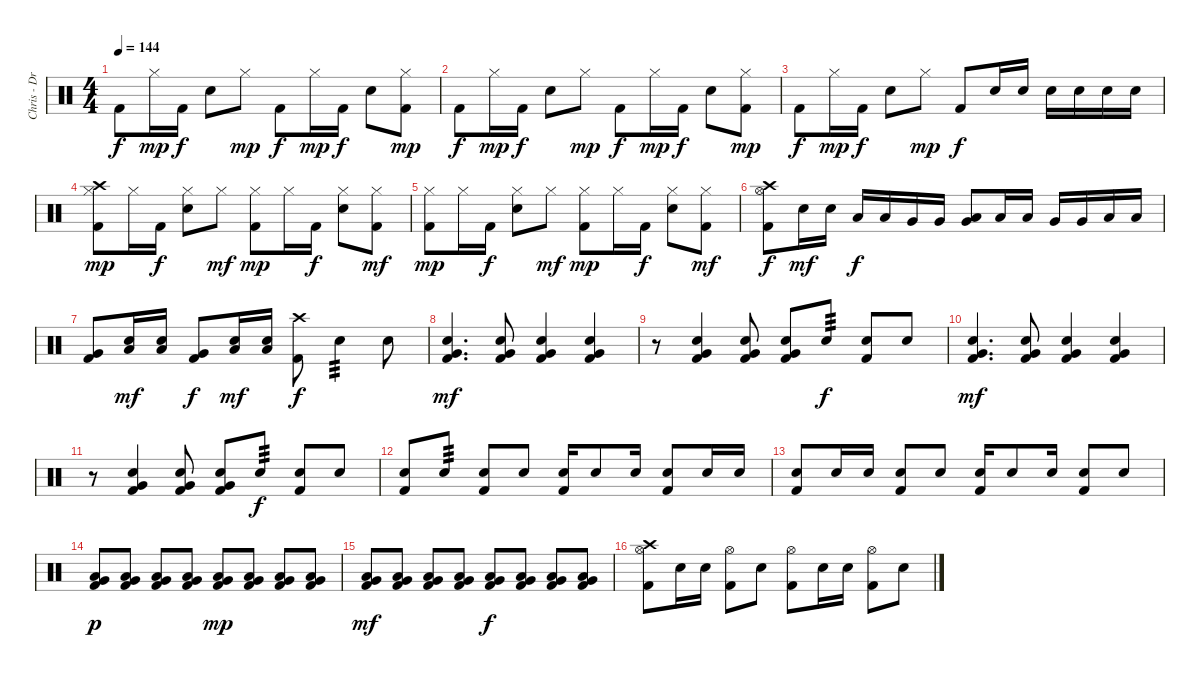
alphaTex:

\track ("Chris - Drums" "Chris - Dr") {instrument percussion}
\staff {score}
\articulation defaults
\ts (4 4)
\tempo 144
\clef neutral
\ks c "Kick (hit) 2".8{dy f} "Hi-Hat (closed)".16{dy mp} "Kick (hit) 2".16{dy f} "Electric Snare (hit)".8 "Hi-Hat (closed)".8{dy mp} "Kick (hit) 2".8{dy f} "Hi-Hat (closed)".16{dy mp} "Kick (hit) 2".16{dy f} "Electric Snare (hit)".8
("Hi-Hat (closed)" "Kick (hit) 2").8{dy mp} |
"Kick (hit) 2".8{dy f} "Hi-Hat (closed)".16{dy mp} "Kick (hit) 2".16{dy f} "Electric Snare (hit)".8 "Hi-Hat (closed)".8{dy mp} "Kick (hit) 2".8{dy f} "Hi-Hat (closed)".16{dy mp} "Kick (hit) 2".16{dy f} "Electric Snare (hit)".8 ("Hi-Hat (closed)" "Kick (hit) 2").8{dy mp} |
"Kick (hit) 2".8{dy f} "Hi-Hat (closed)".16{dy mp} "Kick (hit) 2".16{dy f} "Electric Snare (hit)".8 "Hi-Hat (closed)".8{dy mp} "Kick (hit) 2".8{dy f} "Electric Snare (hit)".16 "Electric Snare (hit)".16 "Electric Snare (hit)".16 "Electric Snare (hit)".16 "Electric Snare (hit)".16 "Electric Snare (hit)".16 |
("Crash high (hit)" "Hi-Hat (closed)" "Kick (hit) 2").8{dy mp} "Hi-Hat (closed)".16 "Kick (hit) 2".16{dy f} ("Hi-Hat (closed)" "Electric Snare (hit)").8 "Hi-Hat (closed)".8{dy mf} ("Hi-Hat (closed)" "Kick (hit) 2").8{dy mp} "Hi-Hat (closed)".16 "Kick (hit) 2".16{dy f} ("Hi-Hat (closed)" "Electric Snare (hit)").8 ("Hi-Hat (closed)" "Kick (hit) 2").8{dy mf} |
("Hi-Hat (closed)" "Kick (hit) 2").8{dy mp} "Hi-Hat (closed)".16 "Kick (hit) 2".16{dy f} ("Hi-Hat (closed)" "Electric Snare (hit)").8 "Hi-Hat (closed)".8{dy mf} ("Hi-Hat (closed)" "Kick (hit) 2").8{dy mp} "Hi-Hat (closed)".16 "Kick (hit) 2".16{dy f} ("Hi-Hat (closed)" "Electric Snare (hit)").8 ("Hi-Hat (closed)" "Kick (hit) 2").8{dy mf} |
("Crash high (hit)" "Hi-Hat (open)" "Kick (hit) 2").8{dy f} "Electric Snare (hit)".16{dy mf} "Electric Snare (hit)".16 "Low Tom (hit)".16{dy f} "Low Tom (hit)".16 "Very Low Tom (hit)".16 "Very Low Tom (hit)".16 ("Low Floor Tom (hit)" "Very Low Tom (hit)").8 "Low Tom (hit)".16 "Low Tom (hit)".16 "Very Low Tom (hit)".16 "Very Low Tom (hit)".16 "Low Floor Tom (hit)".16 "Low Floor Tom (hit)".16 |
("Very Low Tom (hit)" "Kick (hit) 2").8 ("Low Tom (hit)" "Electric Snare (hit)").16{dy mf} ("Low Tom (hit)" "Electric Snare (hit)").16 ("Very Low Tom (hit)" "Kick (hit) 2").8{dy f} ("Low Tom (hit)" "Electric Snare (hit)").16{dy mf} ("Low Tom (hit)" "Electric Snare (hit)").16 ("Crash high (hit)" "Kick (hit) 2").8{dy f} "Electric Snare (hit)".4{tp 3} "Electric Snare (hit)".8 |
("Very Low Tom (hit)" "Electric Snare (hit)" "Kick (hit) 2").4{d dy mf} ("Very Low Tom (hit)" "Electric Snare (hit)" "Kick (hit) 2").8 ("Very Low Tom (hit)" "Electric Snare (hit)" "Kick (hit) 2").4 ("Very Low Tom (hit)" "Electric Snare (hit)" "Kick (hit) 2").4 |
r.8 ("Very Low Tom (hit)" "Electric Snare (hit)" "Kick (hit) 2").4 ("Very Low Tom (hit)" "Electric Snare (hit)" "Kick (hit) 2").8 ("Very Low Tom (hit)" "Electric Snare (hit)" "Kick (hit) 2").8 "Electric Snare (hit)".8{tp 3 dy f} ("Electric Snare (hit)" "Kick (hit) 2").8 "Electric Snare (hit)".8 |
("Very Low Tom (hit)" "Electric Snare (hit)" "Kick (hit) 2").4{d dy mf} ("Very Low Tom (hit)" "Electric Snare (hit)" "Kick (hit) 2").8 ("Very Low Tom (hit)" "Electric Snare (hit)" "Kick (hit) 2").4 ("Very Low Tom (hit)" "Electric Snare (hit)" "Kick (hit) 2").4 |
r.8 ("Very Low Tom (hit)" "Electric Snare (hit)" "Kick (hit) 2").4 ("Very Low Tom (hit)" "Electric Snare (hit)" "Kick (hit) 2").8 ("Very Low Tom (hit)" "Electric Snare (hit)" "Kick (hit) 2").8 "Electric Snare (hit)".8{tp 3 dy f} ("Electric Snare (hit)" "Kick (hit) 2").8 "Electric Snare (hit)".8 |
("Electric Snare (hit)" "Kick (hit) 2").8 "Electric Snare (hit)".8{tp 3} ("Electric Snare (hit)" "Kick (hit) 2").8 "Electric Snare (hit)".8 ("Electric Snare (hit)" "Kick (hit) 2").16 "Electric Snare (hit)".8 "Electric Snare (hit)".16 ("Electric Snare (hit)" "Kick (hit) 2").8 "Electric Snare (hit)".16 "Electric Snare (hit)".16 |
("Electric Snare (hit)" "Kick (hit) 2").8 "Electric Snare (hit)".16 "Electric Snare (hit)".16 ("Electric Snare (hit)" "Kick (hit) 2").8 "Electric Snare (hit)".8 ("Electric Snare (hit)" "Kick (hit) 2").16 "Electric Snare (hit)".8 "Electric Snare (hit)".16 ("Electric Snare (hit)" "Kick (hit) 2").8 "Electric Snare (hit)".8 |
("Low Tom (hit)" "Very Low Tom (hit)" "Kick (hit) 2").8{dy p} ("Low Tom (hit)" "Very Low Tom (hit)" "Kick (hit) 2").8 ("Low Tom (hit)" "Very Low Tom (hit)" "Kick (hit) 2").8 ("Low Tom (hit)" "Very Low Tom (hit)" "Kick (hit) 2").8 ("Low Tom (hit)" "Very Low Tom (hit)" "Kick (hit) 2").8{dy mp} ("Low Tom (hit)" "Very Low Tom (hit)" "Kick (hit) 2").8 ("Low Tom (hit)" "Very Low Tom (hit)" "Kick (hit) 2").8 ("Low Tom (hit)" "Very Low Tom (hit)" "Kick (hit) 2").8 |
("Low Tom (hit)" "Very Low Tom (hit)" "Kick (hit) 2").8{dy mf} ("Low Tom (hit)" "Very Low Tom (hit)" "Kick (hit) 2").8 ("Low Tom (hit)" "Very Low Tom (hit)" "Kick (hit) 2").8 ("Low Tom (hit)" "Very Low Tom (hit)" "Kick (hit) 2").8 ("Low Tom (hit)" "Very Low Tom (hit)" "Kick (hit) 2").8{dy f} ("Low Tom (hit)" "Very Low Tom (hit)" "Kick (hit) 2").8 ("Low Tom (hit)" "Very Low Tom (hit)" "Kick (hit) 2").8 ("Low Tom (hit)" "Very Low Tom (hit)" "Kick (hit) 2").8 |
("Crash high (hit)" "Hi-Hat (open)" "Kick (hit) 2").8 "Electric Snare (hit)".16 "Electric Snare (hit)".16 ("Hi-Hat (open)" "Kick (hit) 2").8 "Electric Snare (hit)".8 ("Hi-Hat (open)" "Kick (hit) 2").8 "Electric Snare (hit)".16 "Electric Snare (hit)".16 ("Hi-Hat (open)" "Kick (hit) 2").8 "Electric Snare (hit)".8
